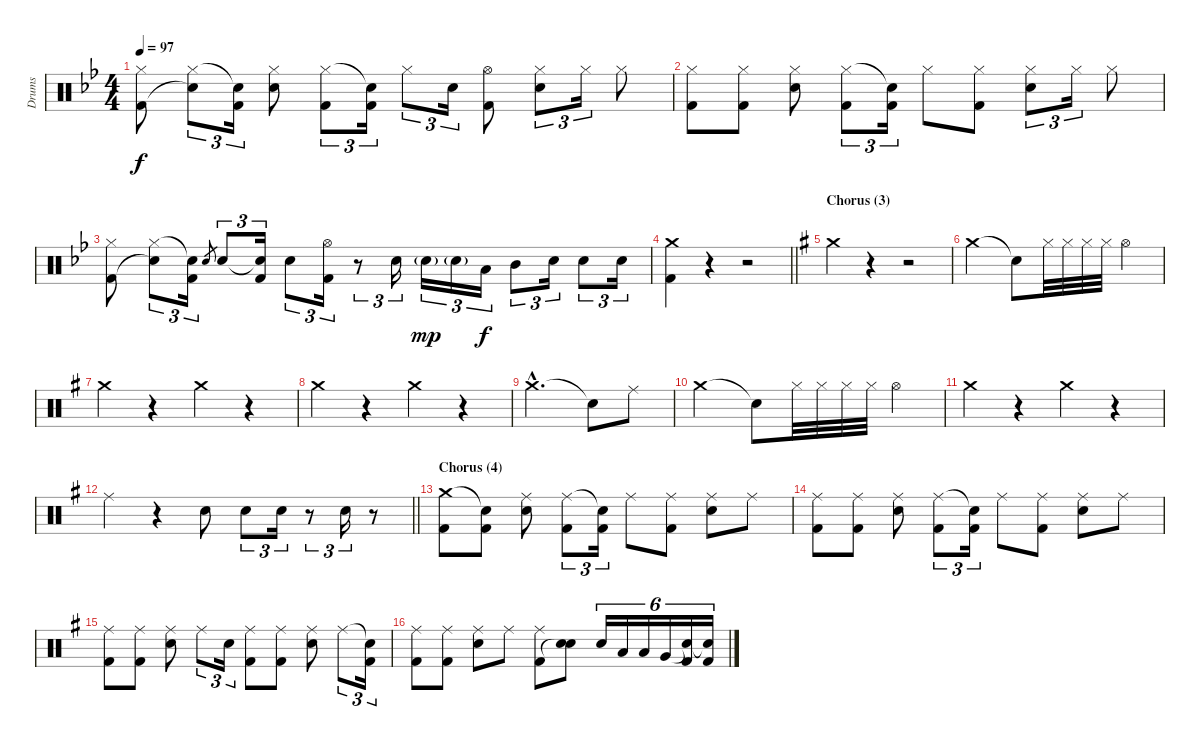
\track ("Drums" "Drums") {instrument percussion}
\staff {score}
\articulation defaults
\ts (4 4)
\tempo 97
\clef neutral
\ks bb
("Hi-Hat (closed)" "Kick (hit) 2").8{dy f} ("Hi-Hat (closed)" "Snare (hit)"{t}).8{tu (3 2)} ("Snare (hit)"{t} "Kick (hit) 2").16{tu (3 2)} ("Hi-Hat (closed)" "Electric Snare (hit)").8 ("Hi-Hat (closed)" "Kick (hit) 2").8{tu (3 2)} ("Snare (hit)"{t} "Kick (hit) 2").16{tu (3 2)} "Hi-Hat (closed)".8{tu (3 2)} "Electric Snare (hit)".16{tu (3 2)} ("Hi-Hat (open)" "Kick (hit) 2").8 ("Hi-Hat (closed)" "Electric Snare (hit)").8{tu (3 2)} "Hi-Hat (closed)".16{tu (3 2)} "Hi-Hat (closed)".8 |
("Hi-Hat (closed)" "Kick (hit) 2").8 ("Hi-Hat (closed)" "Kick (hit) 2").8 ("Hi-Hat (closed)" "Electric Snare (hit)").8 ("Hi-Hat (closed)" "Kick (hit) 2").8{tu (3 2)} ("Snare (hit)"{t} "Kick (hit) 2").16{tu (3 2)} "Hi-Hat (closed)".8 ("Hi-Hat (closed)" "Kick (hit) 2").8 ("Hi-Hat (closed)" "Electric Snare (hit)").8{tu (3 2)} "Hi-Hat (closed)".16{tu (3 2)} "Hi-Hat (closed)".8 |
("Hi-Hat (closed)" "Kick (hit) 2").8 ("Hi-Hat (closed)" "Snare (hit)"{t}).8{tu (3 2)} ("Snare (hit)"{t} "Kick (hit) 2").16{tu (3 2)} "Electric Snare (hit)".8{gr} "Electric Snare (hit)".8{tu (3 2)} ("Snare (hit)"{t} "Kick (hit) 2").16{tu (3 2)} "Electric Snare (hit)".8{tu (3 2)} ("Hi-Hat (open)" "Kick (hit) 2").16{tu (3 2)} r.8{tu (3 2)} "Electric Snare (hit)".16{tu (3 2)} "Electric Snare (hit)"{g}.16{tu (3 2) dy mp} "Electric Snare (hit)"{g}.16{tu (3 2)} "Low Tom (hit)".16{tu (3 2) dy f} "Mid Tom (hit)".8{tu (3 2)} "Electric Snare (hit)".16{tu (3 2)} "Electric Snare (hit)".8{tu (3 2)} "Electric Snare (hit)".16{tu (3 2)} |
\barLineRight lightlight
("Crash medium (hit)" "Kick (hit) 2").4 r.4 r.2 |
\section ("" "Chorus (3)")
\ks g "Crash medium (hit)".4
r.4 r.2 |
"Crash medium (hit)".2 "Snare (hit)"{t}.8 "Hi-Hat (closed)".32 "Hi-Hat (closed)".32 "Hi-Hat (closed)".32 "Hi-Hat (closed)".32 "Hi-Hat (open)".4 |
"Crash medium (hit)".4 r.4 "Crash medium (hit)".4 r.4 |
"Crash medium (hit)".4 r.4 "Crash medium (hit)".4 r.4 |
"Crash medium (hit)"{hac}.2{d} "Snare (hit)"{t}.8 "Ride (middle)".8 |
"Crash medium (hit)".2 "Snare (hit)"{t}.8 "Hi-Hat (closed)".32 "Hi-Hat (closed)".32 "Hi-Hat (closed)".32 "Hi-Hat (closed)".32 "Hi-Hat (open)".4 |
"Crash medium (hit)".4 r.4 "Crash medium (hit)".4 r.4 |
\barLineRight lightlight "Ride (middle)".4
r.4 "Electric Snare (hit)".8 "Electric Snare (hit)".8{tu (3 2)} "Electric Snare (hit)".16{tu (3 2)} r.8{tu (3 2)} "Electric Snare (hit)".16{tu (3 2)} r.8 |
\section ("" "Chorus (4)")
("Crash medium (hit)" "Kick (hit) 2").8 ("Snare (hit)"{t} "Kick (hit) 2").8 ("Ride (middle)" "Electric Snare (hit)").8 ("Ride (middle)" "Kick (hit) 2").8{tu (3 2)} ("Snare (hit)"{t} "Kick (hit) 2").16{tu (3 2)} "Ride (middle)".8 ("Ride (middle)" "Kick (hit) 2").8 ("Ride (middle)" "Electric Snare (hit)").8 "Ride (middle)".8 |
("Ride (middle)" "Kick (hit) 2").8 ("Ride (middle)" "Kick (hit) 2").8 ("Ride (middle)" "Electric Snare (hit)").8 ("Ride (middle)" "Kick (hit) 2").8{tu (3 2)} ("Snare (hit)"{t} "Kick (hit) 2").16{tu (3 2)} "Ride (middle)".8 ("Ride (middle)" "Kick (hit) 2").8 ("Ride (middle)" "Electric Snare (hit)").8 "Ride (middle)".8 |
("Ride (middle)" "Kick (hit) 2").8 ("Ride (middle)" "Kick (hit) 2").8 ("Ride (middle)" "Electric Snare (hit)").8 "Ride (middle)".8{tu (3 2)} "Electric Snare (hit)".16{tu (3 2)} ("Ride (middle)" "Kick (hit) 2").8 ("Ride (middle)" "Kick (hit) 2").8 ("Ride (middle)" "Electric Snare (hit)").8 "Ride (middle)".8{tu (3 2)} ("Snare (hit)"{t} "Kick (hit) 2").16{tu (3 2)} |
("Ride (middle)" "Kick (hit) 2").8 ("Ride (middle)" "Kick (hit) 2").8 ("Ride (middle)" "Electric Snare (hit)").8 "Ride (middle)".8 ("Ride (middle)" "Kick (hit) 2").8 ("Electric Snare (hit)" "Snare (hit)"{t}).8 "Electric Snare (hit)".16{tu (6 4)} "Low Tom (hit)".16{tu (6 4)} "Low Tom (hit)".16{tu (6 4)} "Very Low Tom (hit)".16{tu (6 4)} ("Snare (hit)"{t} "Kick (hit) 2").16{tu (6 4)} ("Snare (hit)"{t} "Kick (hit) 2").16{tu (6 4)}
